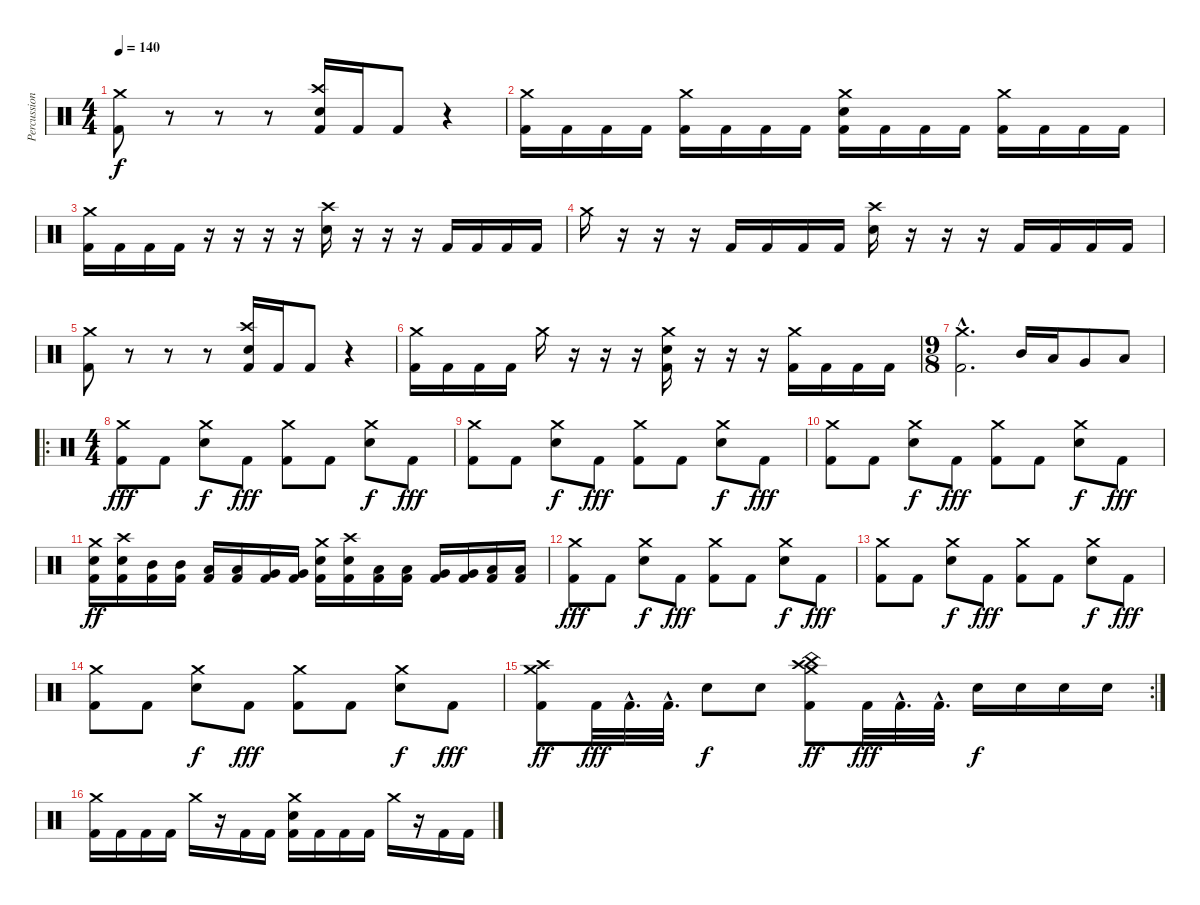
\track ("Percussions" "Percussion") {instrument percussion}
\staff {score}
\articulation defaults
\ts (4 4)
\tempo 140
\clef neutral
\ks c
("Crash medium (hit)" "Kick (hit) 2").8{dy f} r.8 r.8 r.8 ("Crash high (hit)" "Snare (hit) 2" "Kick (hit) 2").16 "Kick (hit) 2".16 "Kick (hit) 2".8 r.4 |
("Crash medium (hit)" "Kick (hit) 2").16 "Kick (hit) 2".16 "Kick (hit) 2".16 "Kick (hit) 2".16 ("Crash medium (hit)" "Kick (hit) 2").16 "Kick (hit) 2".16 "Kick (hit) 2".16 "Kick (hit) 2".16 ("Crash medium (hit)" "Snare (hit) 2" "Kick (hit) 2").16 "Kick (hit) 2".16 "Kick (hit) 2".16 "Kick (hit) 2".16 ("Crash medium (hit)" "Kick (hit) 2").16 "Kick (hit) 2".16 "Kick (hit) 2".16 "Kick (hit) 2".16 |
("Crash medium (hit)" "Kick (hit) 2").16 "Kick (hit) 2".16 "Kick (hit) 2".16 "Kick (hit) 2".16 r.16 r.16 r.16 r.16 ("Crash high (hit)" "Snare (hit) 2").16 r.16 r.16 r.16 "Kick (hit) 2".16 "Kick (hit) 2".16 "Kick (hit) 2".16 "Kick (hit) 2".16 |
"Crash medium (hit)".16 r.16 r.16 r.16 "Kick (hit) 2".16 "Kick (hit) 2".16 "Kick (hit) 2".16 "Kick (hit) 2".16 ("Crash high (hit)" "Snare (hit) 2").16 r.16 r.16 r.16 "Kick (hit) 2".16 "Kick (hit) 2".16 "Kick (hit) 2".16 "Kick (hit) 2".16 |
("Crash medium (hit)" "Kick (hit) 2").8 r.8 r.8 r.8 ("Crash high (hit)" "Snare (hit) 2" "Kick (hit) 2").16 "Kick (hit) 2".16 "Kick (hit) 2".8 r.4 |
("Crash medium (hit)" "Kick (hit) 2").16 "Kick (hit) 2".16 "Kick (hit) 2".16 "Kick (hit) 2".16 "Crash medium (hit)".16 r.16 r.16 r.16 ("Crash medium (hit)" "Snare (hit) 2" "Kick (hit) 2").16 r.16 r.16 r.16 ("Crash medium (hit)" "Kick (hit) 2").16 "Kick (hit) 2".16 "Kick (hit) 2".16 "Kick (hit) 2".16 |
\ts (9 8)
("Crash medium (hit)"{hac} "Kick (hit) 2"{hac}).2{d} "Mid Tom (hit)".16 "Low Tom (hit)".16 "Very Low Tom (hit)".8 "Low Floor Tom (hit)".8 |
\ro
\ts (4 4)
("Crash medium (hit)" "Kick (hit) 2").8{dy fff} "Kick (hit) 2".8 ("Crash medium (hit)" "Snare (hit) 2").8{dy f} "Kick (hit) 2".8{dy fff} ("Crash medium (hit)" "Kick (hit) 2").8 "Kick (hit) 2".8 ("Crash medium (hit)" "Snare (hit) 2").8{dy f} "Kick (hit) 2".8{dy fff} |
("Crash medium (hit)" "Kick (hit) 2").8 "Kick (hit) 2".8 ("Crash medium (hit)" "Snare (hit) 2").8{dy f} "Kick (hit) 2".8{dy fff} ("Crash medium (hit)" "Kick (hit) 2").8 "Kick (hit) 2".8 ("Crash medium (hit)" "Snare (hit) 2").8{dy f} "Kick (hit) 2".8{dy fff} |
("Crash medium (hit)" "Kick (hit) 2").8 "Kick (hit) 2".8 ("Crash medium (hit)" "Snare (hit) 2").8{dy f} "Kick (hit) 2".8{dy fff} ("Crash medium (hit)" "Kick (hit) 2").8 "Kick (hit) 2".8 ("Crash medium (hit)" "Snare (hit) 2").8{dy f} "Kick (hit) 2".8{dy fff} |
("Crash medium (hit)" "Snare (hit) 2" "Kick (hit) 2").16{dy ff} ("Crash high (hit)" "Snare (hit) 2" "Kick (hit) 2").16 ("Mid Tom (hit)" "Kick (hit) 2").16 ("Mid Tom (hit)" "Kick (hit) 2").16 ("Low Tom (hit)" "Kick (hit) 2").16 ("Low Tom (hit)" "Kick (hit) 2").16 ("Very Low Tom (hit)" "Kick (hit) 2").16 ("Very Low Tom (hit)" "Kick (hit) 2").16 ("Crash medium (hit)" "Snare (hit) 2" "Kick (hit) 2").16 ("Crash high (hit)" "Snare (hit) 2" "Kick (hit) 2").16 ("Low Tom (hit)" "Kick (hit) 2").16 ("Low Tom (hit)" "Kick (hit) 2").16 ("Very Low Tom (hit)" "Kick (hit) 2").16 ("Very Low Tom (hit)" "Kick (hit) 2").16 ("Low Floor Tom (hit)" "Kick (hit) 2").16 ("Low Floor Tom (hit)" "Kick (hit) 2").16 |
("Crash medium (hit)" "Kick (hit) 2").8{dy fff} "Kick (hit) 2".8 ("Crash medium (hit)" "Snare (hit) 2").8{dy f} "Kick (hit) 2".8{dy fff} ("Crash medium (hit)" "Kick (hit) 2").8 "Kick (hit) 2".8 ("Crash medium (hit)" "Snare (hit) 2").8{dy f} "Kick (hit) 2".8{dy fff} |
("Crash medium (hit)" "Kick (hit) 2").8 "Kick (hit) 2".8 ("Crash medium (hit)" "Snare (hit) 2").8{dy f} "Kick (hit) 2".8{dy fff} ("Crash medium (hit)" "Kick (hit) 2").8 "Kick (hit) 2".8 ("Crash medium (hit)" "Snare (hit) 2").8{dy f} "Kick (hit) 2".8{dy fff} |
("Crash medium (hit)" "Kick (hit) 2").8 "Kick (hit) 2".8 ("Crash medium (hit)" "Snare (hit) 2").8{dy f} "Kick (hit) 2".8{dy fff} ("Crash medium (hit)" "Kick (hit) 2").8 "Kick (hit) 2".8 ("Crash medium (hit)" "Snare (hit) 2").8{dy f} "Kick (hit) 2".8{dy fff} |
\rc 2
("Crash medium (hit)" "Crash high (hit)" "Kick (hit) 2").8{dy ff} "Kick (hit) 2".32{dy fff} "Kick (hit) 2"{hac}.32{d} "Kick (hit) 2"{hac}.32{d} "Snare (hit) 2".8{dy f} "Snare (hit) 2".8 ("Crash medium (hit)" "China (hit)" "Crash high (hit)" "Kick (hit) 2").8{dy ff} "Kick (hit) 2".32{dy fff} "Kick (hit) 2"{hac}.32{d} "Kick (hit) 2"{hac}.32{d} "Snare (hit) 2".16{dy f} "Snare (hit) 2".16 "Snare (hit) 2".16 "Snare (hit) 2".16 |
("Crash medium (hit)" "Kick (hit) 2").16{volume 13} "Kick (hit) 2".16 "Kick (hit) 2".16 "Kick (hit) 2".16 "Crash medium (hit)".16 r.16 "Kick (hit) 2".16 "Kick (hit) 2".16 ("Crash medium (hit)" "Snare (hit) 2" "Kick (hit) 2").16 "Kick (hit) 2".16 "Kick (hit) 2".16 "Kick (hit) 2".16 "Crash medium (hit)".16 r.16 "Kick (hit) 2".16 "Kick (hit) 2".16
